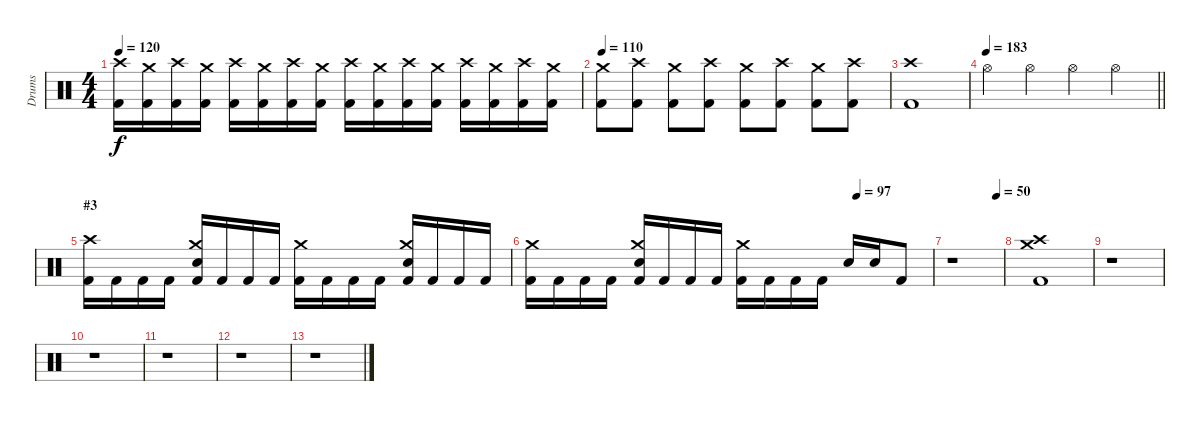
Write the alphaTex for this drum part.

\track ("Drums" "Drums") {instrument percussion}
\staff {score}
\articulation defaults
\ts (4 4)
\tempo 120
\clef neutral
\ks c
("Crash high (hit)" "Kick (hit) 2").16{dy f} ("Crash medium (hit)" "Kick (hit) 2").16 ("Crash high (hit)" "Kick (hit) 2").16 ("Crash medium (hit)" "Kick (hit) 2").16 ("Crash high (hit)" "Kick (hit) 2").16 ("Crash medium (hit)" "Kick (hit) 2").16 ("Crash high (hit)" "Kick (hit) 2").16 ("Crash medium (hit)" "Kick (hit) 2").16 ("Crash high (hit)" "Kick (hit) 2").16 ("Crash medium (hit)" "Kick (hit) 2").16 ("Crash high (hit)" "Kick (hit) 2").16 ("Crash medium (hit)" "Kick (hit) 2").16 ("Crash high (hit)" "Kick (hit) 2").16 ("Crash medium (hit)" "Kick (hit) 2").16 ("Crash high (hit)" "Kick (hit) 2").16 ("Crash medium (hit)" "Kick (hit) 2").16 |
\tempo 110
("Crash medium (hit)" "Kick (hit) 2").8 ("Crash high (hit)" "Kick (hit) 2").8 ("Crash medium (hit)" "Kick (hit) 2").8 ("Crash high (hit)" "Kick (hit) 2").8 ("Crash medium (hit)" "Kick (hit) 2").8 ("Crash high (hit)" "Kick (hit) 2").8 ("Crash medium (hit)" "Kick (hit) 2").8 ("Crash high (hit)" "Kick (hit) 2").8 |
("Crash high (hit)" "Kick (hit) 2").1 |
\tempo 183
\barLineRight lightlight "Hi-Hat (open)".4 "Hi-Hat (open)".4 "Hi-Hat (open)".4 "Hi-Hat (open)".4
|
\section ("" "#3")
("Crash high (hit)" "Kick (hit) 2").16 "Kick (hit) 2".16 "Kick (hit) 2".16 "Kick (hit) 2".16 ("Crash medium (hit)" "Electric Snare (hit)" "Kick (hit) 2").16 "Kick (hit) 2".16 "Kick (hit) 2".16 "Kick (hit) 2".16 ("Crash medium (hit)" "Kick (hit) 2").16 "Kick (hit) 2".16 "Kick (hit) 2".16 "Kick (hit) 2".16 ("Crash medium (hit)" "Electric Snare (hit)" "Kick (hit) 2").16 "Kick (hit) 2".16 "Kick (hit) 2".16 "Kick (hit) 2".16 |
\tempo (97 0.8125)
("Crash medium (hit)" "Kick (hit) 2").16 "Kick (hit) 2".16 "Kick (hit) 2".16 "Kick (hit) 2".16 ("Crash medium (hit)" "Electric Snare (hit)" "Kick (hit) 2").16 "Kick (hit) 2".16 "Kick (hit) 2".16 "Kick (hit) 2".16 ("Crash medium (hit)" "Kick (hit) 2").16 "Kick (hit) 2".16 "Kick (hit) 2".16 "Kick (hit) 2".16 "Electric Snare (hit)".16 "Electric Snare (hit)".16 "Kick (hit) 2".8 |
\tempo (50 0.875)
r.1 |
("Crash medium (hit)" "Crash high (hit)" "Kick (hit) 2").1 |
r.1 |
r.1 |
r.1 |
r.1 |
r.1
